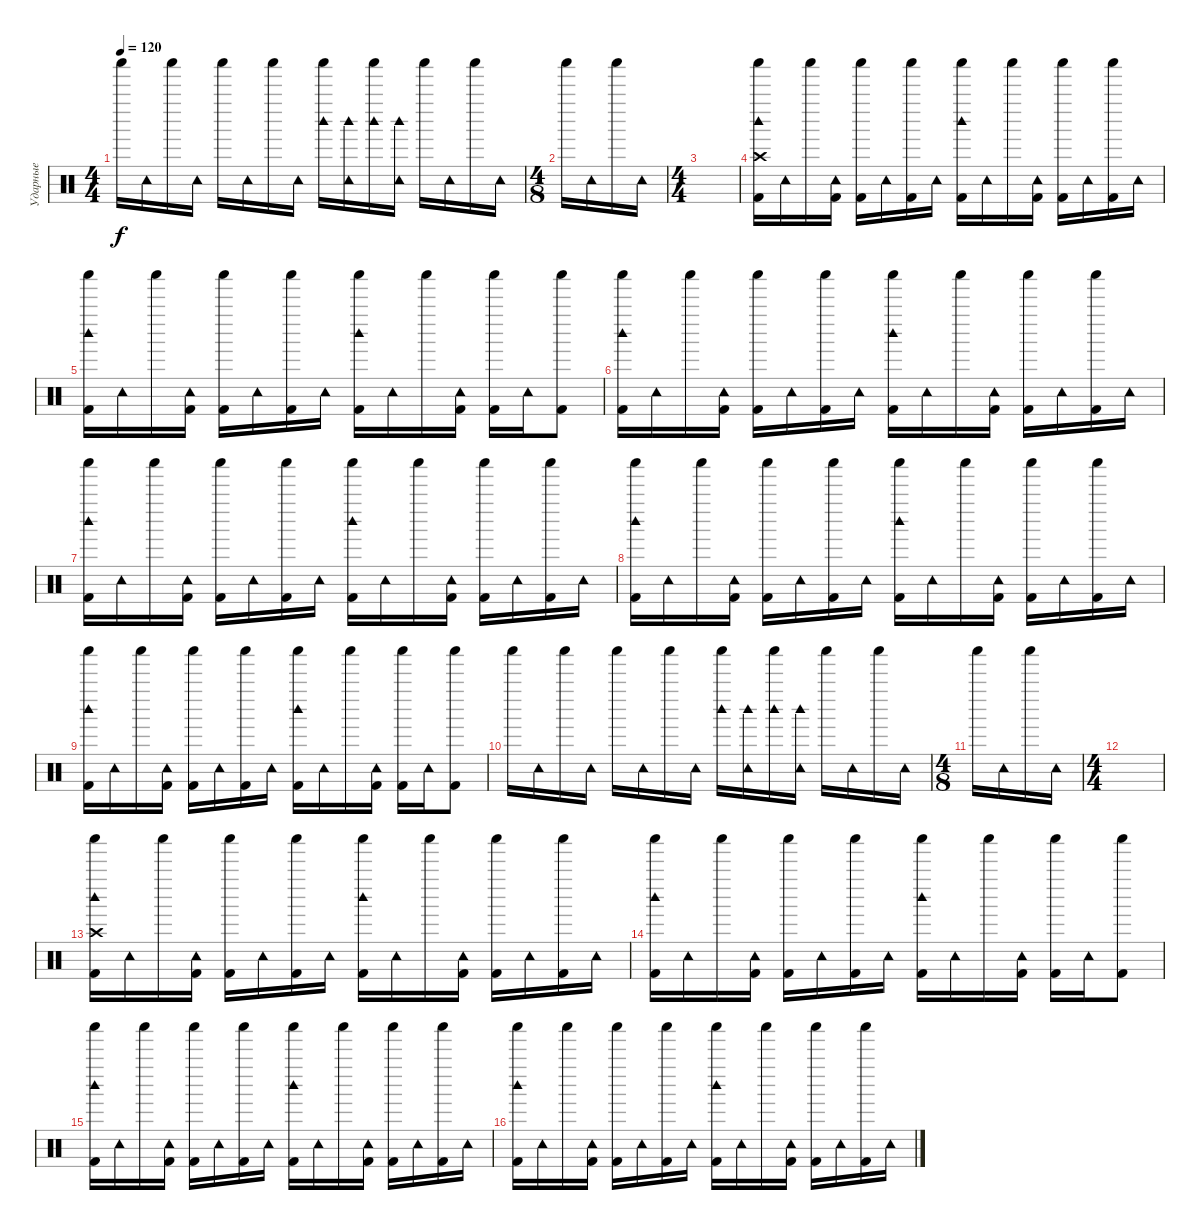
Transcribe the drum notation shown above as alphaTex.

\track ("Ударные" "Ударные") {instrument percussion}
\staff {score}
\articulation defaults
\ts (4 4)
\tempo 120
\clef neutral
\ks c "Shaker (hit)".16{dy f} "Tambourine (hit)".16 "Shaker (hit)".16 "Tambourine (hit)".16 "Shaker (hit)".16 "Tambourine (hit)".16 "Shaker (hit)".16 "Tambourine (hit)".16
("Shaker (hit)" "Woodblock high (hit)").16 ("Tambourine (hit)" "Woodblock high (hit)").16 ("Shaker (hit)" "Woodblock high (hit)").16 ("Tambourine (hit)" "Woodblock high (hit)").16 "Shaker (hit)".16 "Tambourine (hit)".16 "Shaker (hit)".16 "Tambourine (hit)".16 |
\ts (4 8)
"Shaker (hit)".16 "Tambourine (hit)".16 "Shaker (hit)".16 "Tambourine (hit)".16 |
\ts (4 4)
|
("Shaker (hit)" "Kick (hit) 2" "Woodblock high (hit)" "Crash high (hit)").16 "Tambourine (hit)".16 "Shaker (hit)".16 ("Tambourine (hit)" "Kick (hit) 2").16 ("Shaker (hit)" "Kick (hit) 2").16 "Tambourine (hit)".16 ("Shaker (hit)" "Kick (hit) 2").16 "Tambourine (hit)".16 ("Shaker (hit)" "Kick (hit) 2" "Woodblock high (hit)").16 "Tambourine (hit)".16 "Shaker (hit)".16 ("Tambourine (hit)" "Kick (hit) 2").16 ("Shaker (hit)" "Kick (hit) 2").16 "Tambourine (hit)".16 ("Shaker (hit)" "Kick (hit) 2").16 "Tambourine (hit)".16 |
("Shaker (hit)" "Kick (hit) 2" "Woodblock high (hit)").16 "Tambourine (hit)".16 "Shaker (hit)".16 ("Tambourine (hit)" "Kick (hit) 2").16 ("Shaker (hit)" "Kick (hit) 2").16 "Tambourine (hit)".16 ("Shaker (hit)" "Kick (hit) 2").16 "Tambourine (hit)".16 ("Shaker (hit)" "Kick (hit) 2" "Woodblock high (hit)").16 "Tambourine (hit)".16 "Shaker (hit)".16 ("Tambourine (hit)" "Kick (hit) 2").16 ("Shaker (hit)" "Kick (hit) 2").16 "Tambourine (hit)".16 ("Shaker (hit)" "Kick (hit) 2").8 |
("Shaker (hit)" "Kick (hit) 2" "Woodblock high (hit)").16 "Tambourine (hit)".16 "Shaker (hit)".16 ("Tambourine (hit)" "Kick (hit) 2").16 ("Shaker (hit)" "Kick (hit) 2").16 "Tambourine (hit)".16 ("Shaker (hit)" "Kick (hit) 2").16 "Tambourine (hit)".16 ("Shaker (hit)" "Kick (hit) 2" "Woodblock high (hit)").16 "Tambourine (hit)".16 "Shaker (hit)".16 ("Tambourine (hit)" "Kick (hit) 2").16 ("Shaker (hit)" "Kick (hit) 2").16 "Tambourine (hit)".16 ("Shaker (hit)" "Kick (hit) 2").16 "Tambourine (hit)".16 |
("Shaker (hit)" "Kick (hit) 2" "Woodblock high (hit)").16 "Tambourine (hit)".16 "Shaker (hit)".16 ("Tambourine (hit)" "Kick (hit) 2").16 ("Shaker (hit)" "Kick (hit) 2").16 "Tambourine (hit)".16 ("Shaker (hit)" "Kick (hit) 2").16 "Tambourine (hit)".16 ("Shaker (hit)" "Kick (hit) 2" "Woodblock high (hit)").16 "Tambourine (hit)".16 "Shaker (hit)".16 ("Tambourine (hit)" "Kick (hit) 2").16 ("Shaker (hit)" "Kick (hit) 2").16 "Tambourine (hit)".16 ("Shaker (hit)" "Kick (hit) 2").16 "Tambourine (hit)".16 |
("Shaker (hit)" "Kick (hit) 2" "Woodblock high (hit)").16 "Tambourine (hit)".16 "Shaker (hit)".16 ("Tambourine (hit)" "Kick (hit) 2").16 ("Shaker (hit)" "Kick (hit) 2").16 "Tambourine (hit)".16 ("Shaker (hit)" "Kick (hit) 2").16 "Tambourine (hit)".16 ("Shaker (hit)" "Kick (hit) 2" "Woodblock high (hit)").16 "Tambourine (hit)".16 "Shaker (hit)".16 ("Tambourine (hit)" "Kick (hit) 2").16 ("Shaker (hit)" "Kick (hit) 2").16 "Tambourine (hit)".16 ("Shaker (hit)" "Kick (hit) 2").16 "Tambourine (hit)".16 |
("Shaker (hit)" "Kick (hit) 2" "Woodblock high (hit)").16 "Tambourine (hit)".16 "Shaker (hit)".16 ("Tambourine (hit)" "Kick (hit) 2").16 ("Shaker (hit)" "Kick (hit) 2").16 "Tambourine (hit)".16 ("Shaker (hit)" "Kick (hit) 2").16 "Tambourine (hit)".16 ("Shaker (hit)" "Kick (hit) 2" "Woodblock high (hit)").16 "Tambourine (hit)".16 "Shaker (hit)".16 ("Tambourine (hit)" "Kick (hit) 2").16 ("Shaker (hit)" "Kick (hit) 2").16 "Tambourine (hit)".16 ("Shaker (hit)" "Kick (hit) 2").8 |
"Shaker (hit)".16 "Tambourine (hit)".16 "Shaker (hit)".16 "Tambourine (hit)".16 "Shaker (hit)".16 "Tambourine (hit)".16 "Shaker (hit)".16 "Tambourine (hit)".16 ("Shaker (hit)" "Woodblock high (hit)").16 ("Tambourine (hit)" "Woodblock high (hit)").16 ("Shaker (hit)" "Woodblock high (hit)").16 ("Tambourine (hit)" "Woodblock high (hit)").16 "Shaker (hit)".16 "Tambourine (hit)".16 "Shaker (hit)".16 "Tambourine (hit)".16 |
\ts (4 8)
"Shaker (hit)".16 "Tambourine (hit)".16 "Shaker (hit)".16 "Tambourine (hit)".16 |
\ts (4 4)
|
("Shaker (hit)" "Kick (hit) 2" "Woodblock high (hit)" "Crash high (hit)").16 "Tambourine (hit)".16 "Shaker (hit)".16 ("Tambourine (hit)" "Kick (hit) 2").16 ("Shaker (hit)" "Kick (hit) 2").16 "Tambourine (hit)".16 ("Shaker (hit)" "Kick (hit) 2").16 "Tambourine (hit)".16 ("Shaker (hit)" "Kick (hit) 2" "Woodblock high (hit)").16 "Tambourine (hit)".16 "Shaker (hit)".16 ("Tambourine (hit)" "Kick (hit) 2").16 ("Shaker (hit)" "Kick (hit) 2").16 "Tambourine (hit)".16 ("Shaker (hit)" "Kick (hit) 2").16 "Tambourine (hit)".16 |
("Shaker (hit)" "Kick (hit) 2" "Woodblock high (hit)").16 "Tambourine (hit)".16 "Shaker (hit)".16 ("Tambourine (hit)" "Kick (hit) 2").16 ("Shaker (hit)" "Kick (hit) 2").16 "Tambourine (hit)".16 ("Shaker (hit)" "Kick (hit) 2").16 "Tambourine (hit)".16 ("Shaker (hit)" "Kick (hit) 2" "Woodblock high (hit)").16 "Tambourine (hit)".16 "Shaker (hit)".16 ("Tambourine (hit)" "Kick (hit) 2").16 ("Shaker (hit)" "Kick (hit) 2").16 "Tambourine (hit)".16 ("Shaker (hit)" "Kick (hit) 2").8 |
("Shaker (hit)" "Kick (hit) 2" "Woodblock high (hit)").16 "Tambourine (hit)".16 "Shaker (hit)".16 ("Tambourine (hit)" "Kick (hit) 2").16 ("Shaker (hit)" "Kick (hit) 2").16 "Tambourine (hit)".16 ("Shaker (hit)" "Kick (hit) 2").16 "Tambourine (hit)".16 ("Shaker (hit)" "Kick (hit) 2" "Woodblock high (hit)").16 "Tambourine (hit)".16 "Shaker (hit)".16 ("Tambourine (hit)" "Kick (hit) 2").16 ("Shaker (hit)" "Kick (hit) 2").16 "Tambourine (hit)".16 ("Shaker (hit)" "Kick (hit) 2").16 "Tambourine (hit)".16 |
("Shaker (hit)" "Kick (hit) 2" "Woodblock high (hit)").16 "Tambourine (hit)".16 "Shaker (hit)".16 ("Tambourine (hit)" "Kick (hit) 2").16 ("Shaker (hit)" "Kick (hit) 2").16 "Tambourine (hit)".16 ("Shaker (hit)" "Kick (hit) 2").16 "Tambourine (hit)".16 ("Shaker (hit)" "Kick (hit) 2" "Woodblock high (hit)").16 "Tambourine (hit)".16 "Shaker (hit)".16 ("Tambourine (hit)" "Kick (hit) 2").16 ("Shaker (hit)" "Kick (hit) 2").16 "Tambourine (hit)".16 ("Shaker (hit)" "Kick (hit) 2").16 "Tambourine (hit)".16
